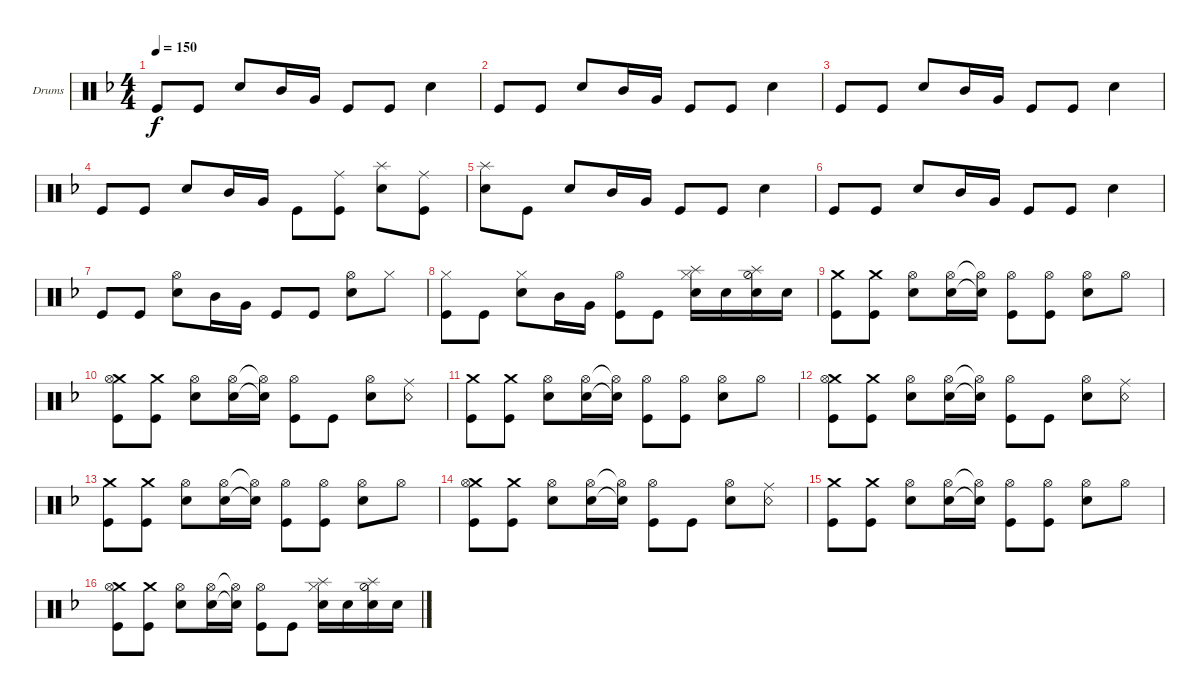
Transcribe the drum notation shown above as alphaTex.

\defaultSystemsLayout 4
\bracketExtendMode groupsimilarinstruments
\firstSystemTrackNameOrientation horizontal
\otherSystemsTrackNameOrientation horizontal
\track ("Шуруп - Ударные" "Drums") {instrument percussion}
\staff {score}
\articulation defaults
\ts (4 4)
\tempo 150
\clef neutral
\ks f "Kick (hit)".8{dy f} "Kick (hit)".8 "Snare (hit) 2".8 "Mid Tom (hit)".16 "Very Low Tom (hit)".16 "Kick (hit)".8 "Kick (hit)".8 "Snare (hit) 2".4
|
"Kick (hit)".8 "Kick (hit)".8 "Snare (hit) 2".8 "Mid Tom (hit)".16 "Very Low Tom (hit)".16 "Kick (hit)".8 "Kick (hit)".8 "Snare (hit) 2".4 |
"Kick (hit)".8 "Kick (hit)".8 "Snare (hit) 2".8 "Mid Tom (hit)".16 "Very Low Tom (hit)".16 "Kick (hit)".8 "Kick (hit)".8 "Snare (hit) 2".4 |
"Kick (hit)".8 "Kick (hit)".8 "Snare (hit) 2".8 "Mid Tom (hit)".16 "Very Low Tom (hit)".16 "Kick (hit)".8 ("Kick (hit)" "Ride (middle)").8 ("Snare (hit) 2" "Splash (hit)").8 ("Ride (middle)" "Kick (hit)").8 |
("Splash (hit)" "Snare (hit) 2").8 "Kick (hit)".8 "Snare (hit) 2".8 "Mid Tom (hit)".16 "Very Low Tom (hit)".16 "Kick (hit)".8 "Kick (hit)".8 "Snare (hit) 2".4 |
"Kick (hit)".8 "Kick (hit)".8 "Snare (hit) 2".8 "Mid Tom (hit)".16 "Very Low Tom (hit)".16 "Kick (hit)".8 "Kick (hit)".8 "Snare (hit) 2".4 |
"Kick (hit)".8 "Kick (hit)".8 ("Snare (hit) 2" "Hi-Hat (open)").8 "Mid Tom (hit)".16 "Very Low Tom (hit)".16 "Kick (hit)".8 "Kick (hit)".8 ("Snare (hit) 2" "Hi-Hat (open)").8 "Hi-Hat (closed)".8 |
("Kick (hit)" "Hi-Hat (closed)").8 "Kick (hit)".8 ("Snare (hit) 2" "Hi-Hat (closed)").8 "Mid Tom (hit)".16 "Very Low Tom (hit)".16 ("Kick (hit)" "Hi-Hat (open)").8 "Kick (hit)".8 ("Snare (hit) 2" "Hi-Hat (closed)" "Splash (hit)").16 "Snare (hit) 2".16 ("Hi-Hat (half)" "Splash (hit)" "Snare (hit) 2").16 "Snare (hit) 2".16 |
("Kick (hit)" "Crash medium (hit)").8 ("Kick (hit)" "Crash medium (hit)").8 ("Snare (hit) 2" "Hi-Hat (open)").8 ("Snare (hit) 2" "Hi-Hat (open)").16 ("Snare (hit) 2"{t} "Hi-Hat (open)"{t}).16 ("Kick (hit)" "Hi-Hat (open)").8 ("Kick (hit)" "Hi-Hat (open)").8 ("Snare (hit) 2" "Hi-Hat (open)").8 "Hi-Hat (open)".8 |
("Kick (hit)" "Crash medium (hit)" "Hi-Hat (open)").8 ("Kick (hit)" "Crash medium (hit)").8 ("Snare (hit) 2" "Hi-Hat (open)").8 ("Snare (hit) 2" "Hi-Hat (open)").16 ("Snare (hit) 2"{t} "Hi-Hat (open)"{t}).16 ("Kick (hit)" "Hi-Hat (open)").8 "Kick (hit)".8 ("Snare (hit) 2" "Hi-Hat (open)").8 ("Snare (rim shot)" "Ride (middle)").8 |
("Kick (hit)" "Crash medium (hit)").8 ("Kick (hit)" "Crash medium (hit)").8 ("Snare (hit) 2" "Hi-Hat (open)").8 ("Snare (hit) 2" "Hi-Hat (open)").16 ("Snare (hit) 2"{t} "Hi-Hat (open)"{t}).16 ("Kick (hit)" "Hi-Hat (open)").8 ("Kick (hit)" "Hi-Hat (open)").8 ("Snare (hit) 2" "Hi-Hat (open)").8 "Hi-Hat (open)".8 |
("Kick (hit)" "Crash medium (hit)" "Hi-Hat (open)").8 ("Kick (hit)" "Crash medium (hit)").8 ("Snare (hit) 2" "Hi-Hat (open)").8 ("Snare (hit) 2" "Hi-Hat (open)").16 ("Snare (hit) 2"{t} "Hi-Hat (open)"{t}).16 ("Kick (hit)" "Hi-Hat (open)").8 "Kick (hit)".8 ("Snare (hit) 2" "Hi-Hat (open)").8 ("Snare (rim shot)" "Ride (middle)").8 |
("Kick (hit)" "Crash medium (hit)").8 ("Kick (hit)" "Crash medium (hit)").8 ("Snare (hit) 2" "Hi-Hat (open)").8 ("Snare (hit) 2" "Hi-Hat (open)").16 ("Snare (hit) 2"{t} "Hi-Hat (open)"{t}).16 ("Kick (hit)" "Hi-Hat (open)").8 ("Kick (hit)" "Hi-Hat (open)").8 ("Snare (hit) 2" "Hi-Hat (open)").8 "Hi-Hat (open)".8 |
("Kick (hit)" "Crash medium (hit)" "Hi-Hat (open)").8 ("Kick (hit)" "Crash medium (hit)").8 ("Snare (hit) 2" "Hi-Hat (open)").8 ("Snare (hit) 2" "Hi-Hat (open)").16 ("Snare (hit) 2"{t} "Hi-Hat (open)"{t}).16 ("Kick (hit)" "Hi-Hat (open)").8 "Kick (hit)".8 ("Snare (hit) 2" "Hi-Hat (open)").8 ("Snare (rim shot)" "Ride (middle)").8 |
("Kick (hit)" "Crash medium (hit)").8 ("Kick (hit)" "Crash medium (hit)").8 ("Snare (hit) 2" "Hi-Hat (open)").8 ("Snare (hit) 2" "Hi-Hat (open)").16 ("Snare (hit) 2"{t} "Hi-Hat (open)"{t}).16 ("Kick (hit)" "Hi-Hat (open)").8 ("Kick (hit)" "Hi-Hat (open)").8 ("Snare (hit) 2" "Hi-Hat (open)").8 "Hi-Hat (open)".8 |
("Kick (hit)" "Crash medium (hit)" "Hi-Hat (open)").8 ("Kick (hit)" "Crash medium (hit)").8 ("Snare (hit) 2" "Hi-Hat (open)").8 ("Snare (hit) 2" "Hi-Hat (open)").16 ("Snare (hit) 2"{t} "Hi-Hat (open)"{t}).16 ("Kick (hit)" "Hi-Hat (open)").8 "Kick (hit)".8 ("Snare (hit) 2" "Hi-Hat (closed)" "Splash (hit)").16 "Snare (hit) 2".16 ("Hi-Hat (half)" "Splash (hit)" "Snare (hit) 2").16 "Snare (hit) 2".16
